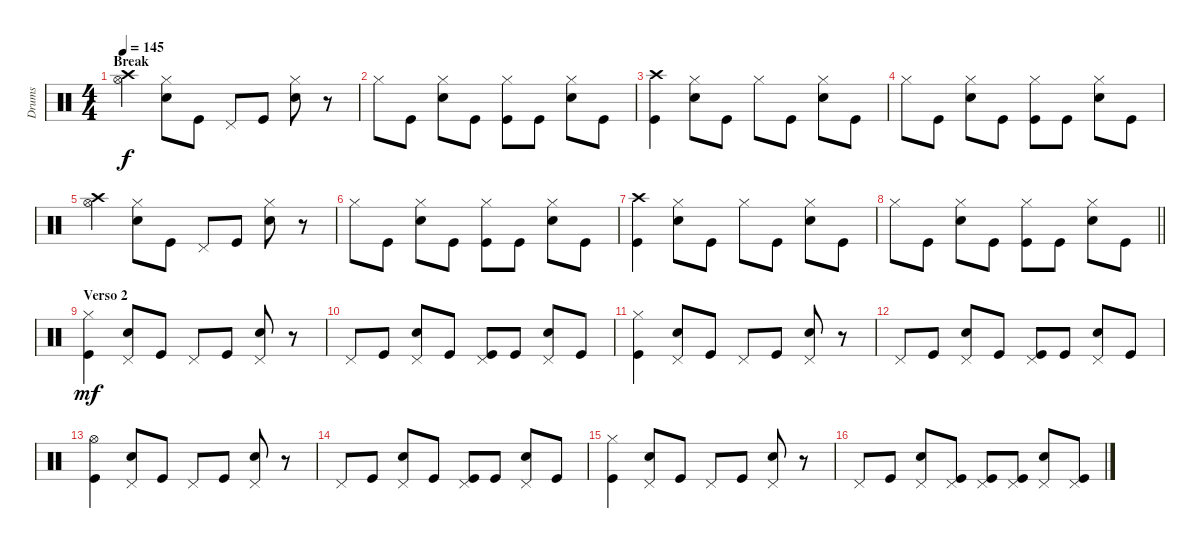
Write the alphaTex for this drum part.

\track ("Drums" "Drums") {instrument percussion}
\staff {score}
\articulation defaults
\ts (4 4)
\section ("" "Break")
\tempo 145
\clef neutral
\ks c
("Crash high (hit)" "Hi-Hat (open)").4{dy f} ("Hi-Hat (closed)" "Snare (hit) 2").8 "Kick (hit)".8 "Pedal Hi-Hat (hit)".8 "Kick (hit)".8 ("Hi-Hat (closed)" "Snare (hit) 2").8 r.8 |
"Hi-Hat (closed)".8 "Kick (hit)".8 ("Hi-Hat (closed)" "Snare (hit) 2").8 "Kick (hit)".8 ("Hi-Hat (closed)" "Kick (hit)").8 "Kick (hit)".8 ("Hi-Hat (closed)" "Snare (hit) 2").8 "Kick (hit)".8 |
("Crash high (hit)" "Kick (hit)").4 ("Hi-Hat (closed)" "Snare (hit) 2").8 "Kick (hit)".8 "Hi-Hat (closed)".8 "Kick (hit)".8 ("Hi-Hat (closed)" "Snare (hit) 2").8 "Kick (hit)".8 |
"Hi-Hat (closed)".8 "Kick (hit)".8 ("Hi-Hat (closed)" "Snare (hit) 2").8 "Kick (hit)".8 ("Hi-Hat (closed)" "Kick (hit)").8 "Kick (hit)".8 ("Hi-Hat (closed)" "Snare (hit) 2").8 "Kick (hit)".8 |
("Crash high (hit)" "Hi-Hat (open)").4 ("Hi-Hat (closed)" "Snare (hit) 2").8 "Kick (hit)".8 "Pedal Hi-Hat (hit)".8 "Kick (hit)".8 ("Hi-Hat (closed)" "Snare (hit) 2").8 r.8 |
"Hi-Hat (closed)".8 "Kick (hit)".8 ("Hi-Hat (closed)" "Snare (hit) 2").8 "Kick (hit)".8 ("Hi-Hat (closed)" "Kick (hit)").8 "Kick (hit)".8 ("Hi-Hat (closed)" "Snare (hit) 2").8 "Kick (hit)".8 |
("Crash high (hit)" "Kick (hit)").4 ("Hi-Hat (closed)" "Snare (hit) 2").8 "Kick (hit)".8 "Hi-Hat (closed)".8 "Kick (hit)".8 ("Hi-Hat (closed)" "Snare (hit) 2").8 "Kick (hit)".8 |
\barLineRight lightlight "Hi-Hat (closed)".8 "Kick (hit)".8
("Hi-Hat (closed)" "Snare (hit) 2").8 "Kick (hit)".8 ("Hi-Hat (closed)" "Kick (hit)").8 "Kick (hit)".8 ("Hi-Hat (closed)" "Snare (hit) 2").8 "Kick (hit)".8 |
\section ("" "Verso 2")
("Hi-Hat (closed)" "Kick (hit)").4{dy mf} ("Pedal Hi-Hat (hit)" "Snare (hit) 2").8 "Kick (hit)".8 "Pedal Hi-Hat (hit)".8 "Kick (hit)".8 ("Pedal Hi-Hat (hit)" "Snare (hit) 2").8 r.8 |
"Pedal Hi-Hat (hit)".8 "Kick (hit)".8 ("Pedal Hi-Hat (hit)" "Snare (hit) 2").8 "Kick (hit)".8 ("Pedal Hi-Hat (hit)" "Kick (hit)").8 "Kick (hit)".8 ("Pedal Hi-Hat (hit)" "Snare (hit) 2").8 "Kick (hit)".8 |
("Hi-Hat (closed)" "Kick (hit)").4 ("Pedal Hi-Hat (hit)" "Snare (hit) 2").8 "Kick (hit)".8 "Pedal Hi-Hat (hit)".8 "Kick (hit)".8 ("Pedal Hi-Hat (hit)" "Snare (hit) 2").8 r.8 |
"Pedal Hi-Hat (hit)".8 "Kick (hit)".8 ("Pedal Hi-Hat (hit)" "Snare (hit) 2").8 "Kick (hit)".8 ("Pedal Hi-Hat (hit)" "Kick (hit)").8 "Kick (hit)".8 ("Pedal Hi-Hat (hit)" "Snare (hit) 2").8 "Kick (hit)".8 |
("Hi-Hat (open)" "Kick (hit)").4 ("Pedal Hi-Hat (hit)" "Snare (hit) 2").8 "Kick (hit)".8 "Pedal Hi-Hat (hit)".8 "Kick (hit)".8 ("Pedal Hi-Hat (hit)" "Snare (hit) 2").8 r.8 |
"Pedal Hi-Hat (hit)".8 "Kick (hit)".8 ("Pedal Hi-Hat (hit)" "Snare (hit) 2").8 "Kick (hit)".8 ("Pedal Hi-Hat (hit)" "Kick (hit)").8 "Kick (hit)".8 ("Pedal Hi-Hat (hit)" "Snare (hit) 2").8 "Kick (hit)".8 |
("Hi-Hat (closed)" "Kick (hit)").4 ("Pedal Hi-Hat (hit)" "Snare (hit) 2").8 "Kick (hit)".8 "Pedal Hi-Hat (hit)".8 "Kick (hit)".8 ("Pedal Hi-Hat (hit)" "Snare (hit) 2").8 r.8 |
"Pedal Hi-Hat (hit)".8 "Kick (hit)".8 ("Pedal Hi-Hat (hit)" "Snare (hit) 2").8 ("Pedal Hi-Hat (hit)" "Kick (hit)").8 ("Pedal Hi-Hat (hit)" "Kick (hit)").8 ("Pedal Hi-Hat (hit)" "Kick (hit)").8 ("Pedal Hi-Hat (hit)" "Snare (hit) 2").8 ("Pedal Hi-Hat (hit)" "Kick (hit)").8
